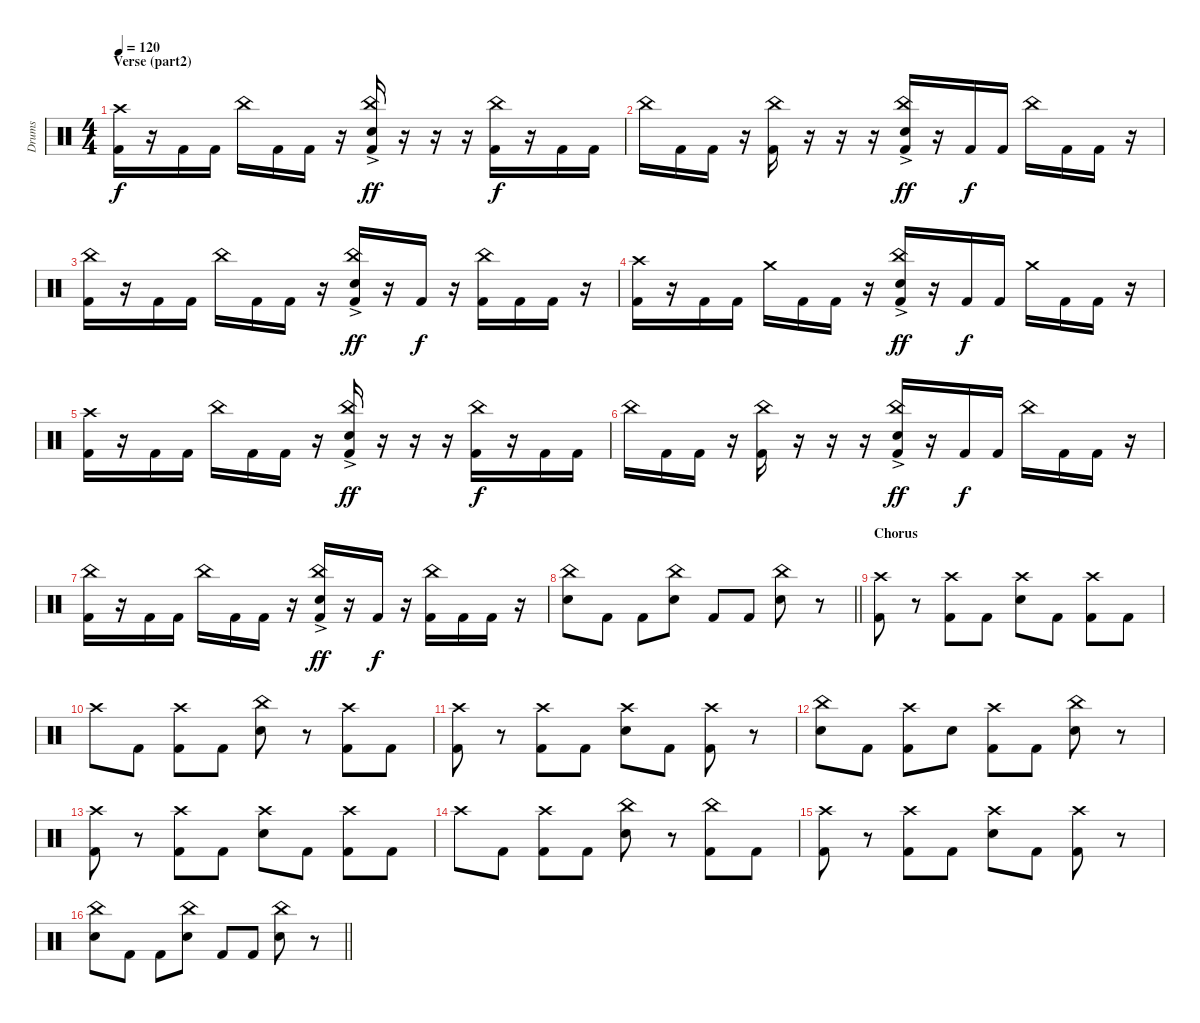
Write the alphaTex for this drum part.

\track ("Drums" "Drums") {instrument percussion}
\staff {score}
\articulation defaults
\ts (4 4)
\section ("" "Verse (part2)")
\tempo 120
\clef neutral
\ks c
("Kick (hit) 2" "Crash high (hit)").16{dy f} r.16 "Kick (hit) 2".16 "Kick (hit) 2".16 "China (hit)".16 "Kick (hit) 2".16 "Kick (hit) 2".16 r.16 ("Kick (hit) 2" "Electric Snare (hit)"{ac} "China (hit)").16{dy ff} r.16 r.16 r.16 ("Kick (hit) 2" "China (hit)").16{dy f} r.16 "Kick (hit) 2".16 "Kick (hit) 2".16 |
"China (hit)".16 "Kick (hit) 2".16 "Kick (hit) 2".16 r.16 ("Kick (hit) 2" "China (hit)").16 r.16 r.16 r.16 ("Kick (hit) 2" "Electric Snare (hit)"{ac} "China (hit)").16{dy ff} r.16 "Kick (hit) 2".16{dy f} "Kick (hit) 2".16 "China (hit)".16 "Kick (hit) 2".16 "Kick (hit) 2".16 r.16 |
("Kick (hit) 2" "China (hit)").16 r.16 "Kick (hit) 2".16 "Kick (hit) 2".16 "China (hit)".16 "Kick (hit) 2".16 "Kick (hit) 2".16 r.16 ("Kick (hit) 2" "Electric Snare (hit)"{ac} "China (hit)").16{dy ff} r.16 "Kick (hit) 2".16{dy f} r.16 ("Kick (hit) 2" "China (hit)").16 "Kick (hit) 2".16 "Kick (hit) 2".16 r.16 |
("Kick (hit) 2" "Crash high (hit)").16 r.16 "Kick (hit) 2".16 "Kick (hit) 2".16 "Crash medium (hit)".16 "Kick (hit) 2".16 "Kick (hit) 2".16 r.16 ("Kick (hit) 2" "Electric Snare (hit)"{ac} "China (hit)").16{dy ff} r.16 "Kick (hit) 2".16{dy f} "Kick (hit) 2".16 "Crash medium (hit)".16 "Kick (hit) 2".16 "Kick (hit) 2".16 r.16 |
("Kick (hit) 2" "Crash high (hit)").16 r.16 "Kick (hit) 2".16 "Kick (hit) 2".16 "China (hit)".16 "Kick (hit) 2".16 "Kick (hit) 2".16 r.16 ("Kick (hit) 2" "Electric Snare (hit)"{ac} "China (hit)").16{dy ff} r.16 r.16 r.16 ("Kick (hit) 2" "China (hit)").16{dy f} r.16 "Kick (hit) 2".16 "Kick (hit) 2".16 |
"China (hit)".16 "Kick (hit) 2".16 "Kick (hit) 2".16 r.16 ("Kick (hit) 2" "China (hit)").16 r.16 r.16 r.16 ("Kick (hit) 2" "Electric Snare (hit)"{ac} "China (hit)").16{dy ff} r.16 "Kick (hit) 2".16{dy f} "Kick (hit) 2".16 "China (hit)".16 "Kick (hit) 2".16 "Kick (hit) 2".16 r.16 |
("Kick (hit) 2" "China (hit)").16 r.16 "Kick (hit) 2".16 "Kick (hit) 2".16 "China (hit)".16 "Kick (hit) 2".16 "Kick (hit) 2".16 r.16 ("Kick (hit) 2" "Electric Snare (hit)"{ac} "China (hit)").16{dy ff} r.16 "Kick (hit) 2".16{dy f} r.16 ("Kick (hit) 2" "China (hit)").16 "Kick (hit) 2".16 "Kick (hit) 2".16 r.16 |
\barLineRight lightlight
("Electric Snare (hit)" "China (hit)").8 "Kick (hit) 2".8 "Kick (hit) 2".8 ("Electric Snare (hit)" "China (hit)").8 "Kick (hit) 2".8 "Kick (hit) 2".8 ("Electric Snare (hit)" "China (hit)").8 r.8 |
\section ("" "Chorus")
("Kick (hit) 2" "Crash high (hit)").8 r.8 ("Kick (hit) 2" "Crash high (hit)").8 "Kick (hit) 2".8 ("Electric Snare (hit)" "Crash high (hit)").8 "Kick (hit) 2".8 ("Kick (hit) 2" "Crash high (hit)").8 "Kick (hit) 2".8 |
"Crash high (hit)".8 "Kick (hit) 2".8 ("Kick (hit) 2" "Crash high (hit)").8 "Kick (hit) 2".8 ("Electric Snare (hit)" "China (hit)").8 r.8 ("Kick (hit) 2" "Crash high (hit)").8 "Kick (hit) 2".8 |
("Kick (hit) 2" "Crash high (hit)").8 r.8 ("Kick (hit) 2" "Crash high (hit)").8 "Kick (hit) 2".8 ("Electric Snare (hit)" "Crash high (hit)").8 "Kick (hit) 2".8 ("Kick (hit) 2" "Crash high (hit)").8 r.8 |
("Electric Snare (hit)" "China (hit)").8 "Kick (hit) 2".8 ("Kick (hit) 2" "Crash high (hit)").8 "Electric Snare (hit)".8 ("Kick (hit) 2" "Crash high (hit)").8 "Kick (hit) 2".8 ("Electric Snare (hit)" "China (hit)").8 r.8 |
("Kick (hit) 2" "Crash high (hit)").8 r.8 ("Kick (hit) 2" "Crash high (hit)").8 "Kick (hit) 2".8 ("Electric Snare (hit)" "Crash high (hit)").8 "Kick (hit) 2".8 ("Kick (hit) 2" "Crash high (hit)").8 "Kick (hit) 2".8 |
"Crash high (hit)".8 "Kick (hit) 2".8 ("Kick (hit) 2" "Crash high (hit)").8 "Kick (hit) 2".8 ("Electric Snare (hit)" "China (hit)").8 r.8 ("Kick (hit) 2" "China (hit)").8 "Kick (hit) 2".8 |
("Kick (hit) 2" "Crash high (hit)").8 r.8 ("Kick (hit) 2" "Crash high (hit)").8 "Kick (hit) 2".8 ("Electric Snare (hit)" "Crash high (hit)").8 "Kick (hit) 2".8 ("Kick (hit) 2" "Crash high (hit)").8 r.8 |
\barLineRight lightlight
("Electric Snare (hit)" "China (hit)").8 "Kick (hit) 2".8 "Kick (hit) 2".8 ("Electric Snare (hit)" "China (hit)").8 "Kick (hit) 2".8 "Kick (hit) 2".8 ("Electric Snare (hit)" "China (hit)").8 r.8
